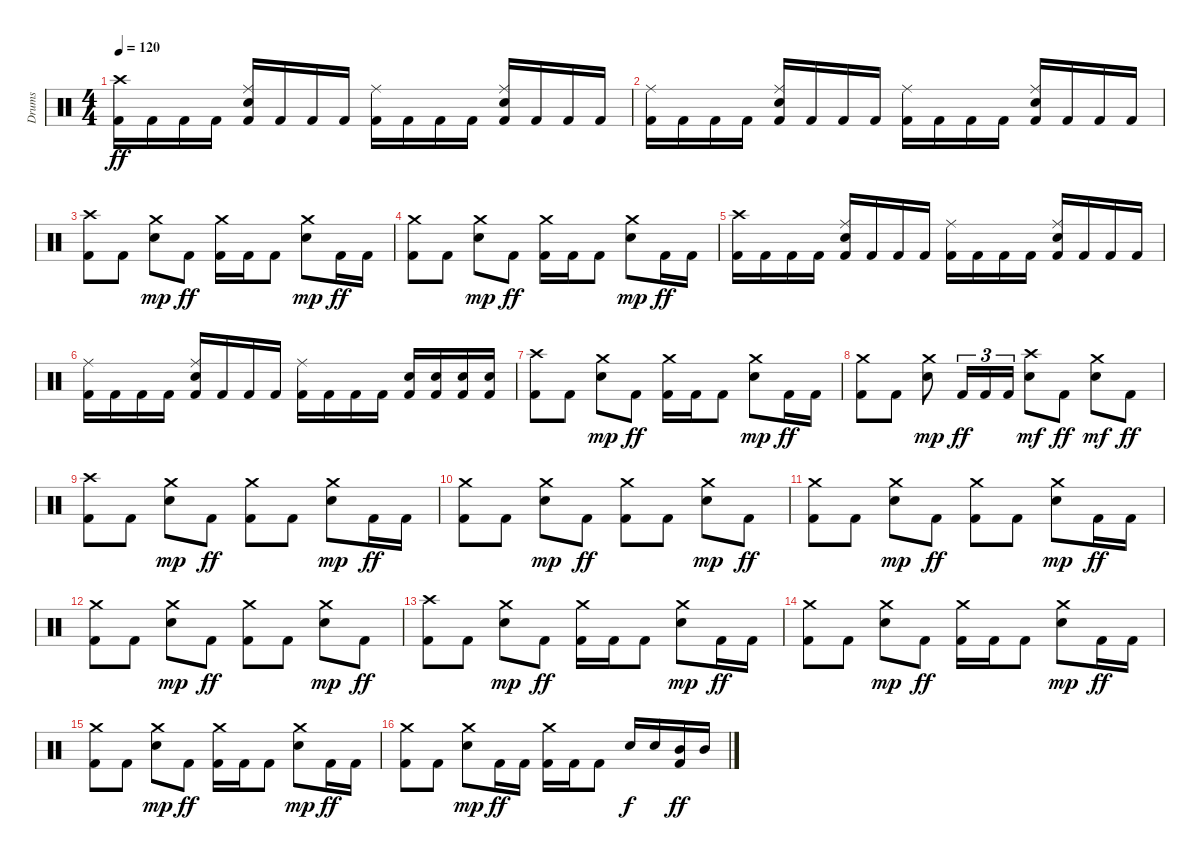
\track ("Drums" "Drums") {instrument percussion}
\staff {score}
\articulation defaults
\ts (4 4)
\tempo 120
\clef neutral
\ks c
("Crash high (hit)" "Kick (hit) 2").16{dy ff} "Kick (hit) 2".16 "Kick (hit) 2".16 "Kick (hit) 2".16 ("Ride (middle)" "Electric Snare (hit)" "Kick (hit) 2").16 "Kick (hit) 2".16 "Kick (hit) 2".16 "Kick (hit) 2".16 ("Ride (middle)" "Kick (hit) 2").16 "Kick (hit) 2".16 "Kick (hit) 2".16 "Kick (hit) 2".16 ("Ride (middle)" "Electric Snare (hit)" "Kick (hit) 2").16 "Kick (hit) 2".16 "Kick (hit) 2".16 "Kick (hit) 2".16 |
("Ride (middle)" "Kick (hit) 2").16 "Kick (hit) 2".16 "Kick (hit) 2".16 "Kick (hit) 2".16 ("Ride (middle)" "Electric Snare (hit)" "Kick (hit) 2").16 "Kick (hit) 2".16 "Kick (hit) 2".16 "Kick (hit) 2".16 ("Ride (middle)" "Kick (hit) 2").16 "Kick (hit) 2".16 "Kick (hit) 2".16 "Kick (hit) 2".16 ("Ride (middle)" "Electric Snare (hit)" "Kick (hit) 2").16 "Kick (hit) 2".16 "Kick (hit) 2".16 "Kick (hit) 2".16 |
("Crash high (hit)" "Kick (hit) 2").8 "Kick (hit) 2".8 ("Crash medium (hit)" "Electric Snare (hit)").8{dy mp} "Kick (hit) 2".8{dy ff} ("Crash medium (hit)" "Kick (hit) 2").16 "Kick (hit) 2".16 "Kick (hit) 2".8 ("Crash medium (hit)" "Electric Snare (hit)").8{dy mp} "Kick (hit) 2".16{dy ff} "Kick (hit) 2".16 |
("Crash medium (hit)" "Kick (hit) 2").8 "Kick (hit) 2".8 ("Crash medium (hit)" "Electric Snare (hit)").8{dy mp} "Kick (hit) 2".8{dy ff} ("Crash medium (hit)" "Kick (hit) 2").16 "Kick (hit) 2".16 "Kick (hit) 2".8 ("Crash medium (hit)" "Electric Snare (hit)").8{dy mp} "Kick (hit) 2".16{dy ff} "Kick (hit) 2".16 |
("Crash high (hit)" "Kick (hit) 2").16 "Kick (hit) 2".16 "Kick (hit) 2".16 "Kick (hit) 2".16 ("Ride (middle)" "Electric Snare (hit)" "Kick (hit) 2").16 "Kick (hit) 2".16 "Kick (hit) 2".16 "Kick (hit) 2".16 ("Ride (middle)" "Kick (hit) 2").16 "Kick (hit) 2".16 "Kick (hit) 2".16 "Kick (hit) 2".16 ("Ride (middle)" "Electric Snare (hit)" "Kick (hit) 2").16 "Kick (hit) 2".16 "Kick (hit) 2".16 "Kick (hit) 2".16 |
("Ride (middle)" "Kick (hit) 2").16 "Kick (hit) 2".16 "Kick (hit) 2".16 "Kick (hit) 2".16 ("Ride (middle)" "Electric Snare (hit)" "Kick (hit) 2").16 "Kick (hit) 2".16 "Kick (hit) 2".16 "Kick (hit) 2".16 ("Ride (middle)" "Kick (hit) 2").16 "Kick (hit) 2".16 "Kick (hit) 2".16 "Kick (hit) 2".16 ("Electric Snare (hit)" "Kick (hit) 2").16 ("Electric Snare (hit)" "Kick (hit) 2").16 ("Electric Snare (hit)" "Kick (hit) 2").16 ("Electric Snare (hit)" "Kick (hit) 2").16 |
("Crash high (hit)" "Kick (hit) 2").8 "Kick (hit) 2".8 ("Crash medium (hit)" "Electric Snare (hit)").8{dy mp} "Kick (hit) 2".8{dy ff} ("Crash medium (hit)" "Kick (hit) 2").16 "Kick (hit) 2".16 "Kick (hit) 2".8 ("Crash medium (hit)" "Electric Snare (hit)").8{dy mp} "Kick (hit) 2".16{dy ff} "Kick (hit) 2".16 |
("Crash medium (hit)" "Kick (hit) 2").8 "Kick (hit) 2".8 ("Crash medium (hit)" "Electric Snare (hit)").8{dy mp} "Kick (hit) 2".16{tu (3 2) dy ff} "Kick (hit) 2".16{tu (3 2)} "Kick (hit) 2".16{tu (3 2)} ("Crash high (hit)" "Electric Snare (hit)").8{dy mf} "Kick (hit) 2".8{dy ff} ("Crash medium (hit)" "Electric Snare (hit)").8{dy mf} "Kick (hit) 2".8{dy ff} |
\section ("" "")
("Crash high (hit)" "Kick (hit) 2").8 "Kick (hit) 2".8 ("Crash medium (hit)" "Electric Snare (hit)").8{dy mp} "Kick (hit) 2".8{dy ff} ("Crash medium (hit)" "Kick (hit) 2").8 "Kick (hit) 2".8 ("Crash medium (hit)" "Electric Snare (hit)").8{dy mp} "Kick (hit) 2".16{dy ff} "Kick (hit) 2".16 |
("Crash medium (hit)" "Kick (hit) 2").8 "Kick (hit) 2".8 ("Crash medium (hit)" "Electric Snare (hit)").8{dy mp} "Kick (hit) 2".8{dy ff} ("Crash medium (hit)" "Kick (hit) 2").8 "Kick (hit) 2".8 ("Crash medium (hit)" "Electric Snare (hit)").8{dy mp} "Kick (hit) 2".8{dy ff} |
("Crash medium (hit)" "Kick (hit) 2").8 "Kick (hit) 2".8 ("Crash medium (hit)" "Electric Snare (hit)").8{dy mp} "Kick (hit) 2".8{dy ff} ("Crash medium (hit)" "Kick (hit) 2").8 "Kick (hit) 2".8 ("Crash medium (hit)" "Electric Snare (hit)").8{dy mp} "Kick (hit) 2".16{dy ff} "Kick (hit) 2".16 |
("Crash medium (hit)" "Kick (hit) 2").8 "Kick (hit) 2".8 ("Crash medium (hit)" "Electric Snare (hit)").8{dy mp} "Kick (hit) 2".8{dy ff} ("Crash medium (hit)" "Kick (hit) 2").8 "Kick (hit) 2".8 ("Crash medium (hit)" "Electric Snare (hit)").8{dy mp} "Kick (hit) 2".8{dy ff} |
("Crash high (hit)" "Kick (hit) 2").8 "Kick (hit) 2".8 ("Crash medium (hit)" "Electric Snare (hit)").8{dy mp} "Kick (hit) 2".8{dy ff} ("Crash medium (hit)" "Kick (hit) 2").16 "Kick (hit) 2".16 "Kick (hit) 2".8 ("Crash medium (hit)" "Electric Snare (hit)").8{dy mp} "Kick (hit) 2".16{dy ff} "Kick (hit) 2".16 |
("Crash medium (hit)" "Kick (hit) 2").8 "Kick (hit) 2".8 ("Crash medium (hit)" "Electric Snare (hit)").8{dy mp} "Kick (hit) 2".8{dy ff} ("Crash medium (hit)" "Kick (hit) 2").16 "Kick (hit) 2".16 "Kick (hit) 2".8 ("Crash medium (hit)" "Electric Snare (hit)").8{dy mp} "Kick (hit) 2".16{dy ff} "Kick (hit) 2".16 |
("Crash medium (hit)" "Kick (hit) 2").8 "Kick (hit) 2".8 ("Crash medium (hit)" "Electric Snare (hit)").8{dy mp} "Kick (hit) 2".8{dy ff} ("Crash medium (hit)" "Kick (hit) 2").16 "Kick (hit) 2".16 "Kick (hit) 2".8 ("Crash medium (hit)" "Electric Snare (hit)").8{dy mp} "Kick (hit) 2".16{dy ff} "Kick (hit) 2".16 |
("Crash medium (hit)" "Kick (hit) 2").8 "Kick (hit) 2".8 ("Crash medium (hit)" "Electric Snare (hit)").8{dy mp} "Kick (hit) 2".16{dy ff} "Kick (hit) 2".16 ("Crash medium (hit)" "Kick (hit) 2").16 "Kick (hit) 2".16 "Kick (hit) 2".8 "Electric Snare (hit)".16{dy f} "Electric Snare (hit)".16 ("Mid Tom (hit)" "Kick (hit) 2").16{dy ff} "Mid Tom (hit)".16
